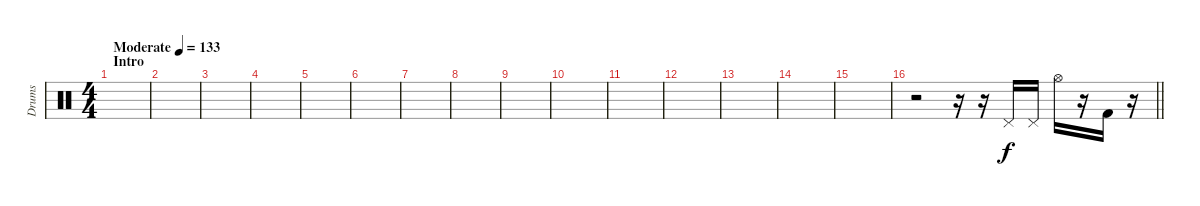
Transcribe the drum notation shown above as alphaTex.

\track ("Drums" "Drums") {instrument percussion}
\staff {score}
\articulation defaults
\ts (4 4)
\section ("" "Intro")
\tempo (133 "Moderate")
\clef neutral
\ks c
|
|
|
|
|
|
|
|
|
|
|
|
|
|
|
\barLineRight lightlight
r.2 r.16 r.16 "Pedal Hi-Hat (hit)".16 "Pedal Hi-Hat (hit)".16 "Hi-Hat (open)".16 r.16 "Kick (hit) 2".16 r.16
